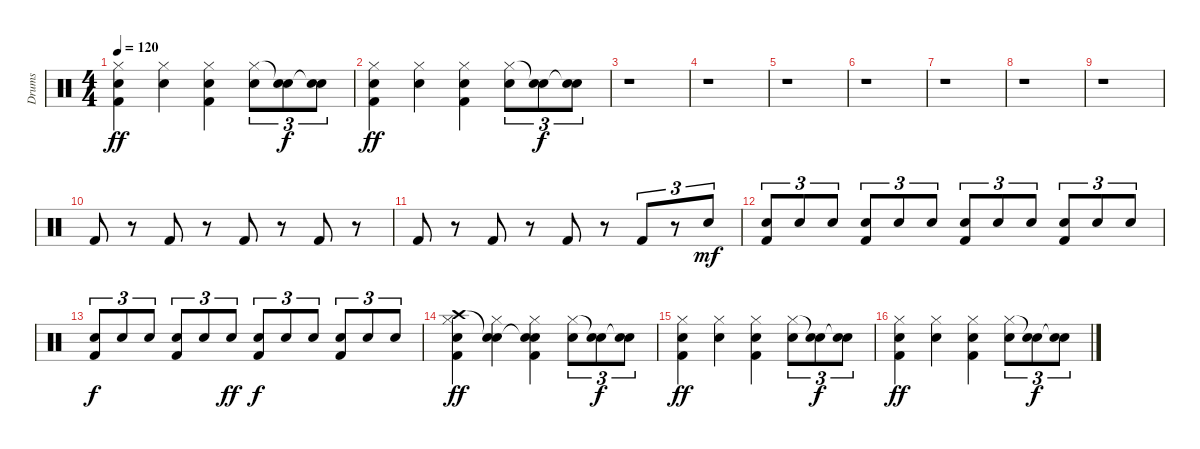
\track ("Drums" "Drums") {instrument percussion}
\staff {score}
\articulation defaults
\ts (4 4)
\tempo 120
\clef neutral
\ks c
("Hi-Hat (closed)" "Snare (hit) 2" "Kick (hit) 2").4{dy ff} ("Hi-Hat (closed)" "Snare (hit) 2").4 ("Hi-Hat (closed)" "Snare (hit) 2" "Kick (hit) 2").4 ("Hi-Hat (closed)" "Snare (hit) 2").8{tu (3 2)} ("Snare (hit)"{t} "Snare (hit) 2").8{tu (3 2) dy f} ("Snare (hit)"{t} "Snare (hit) 2").8{tu (3 2)} |
("Hi-Hat (closed)" "Snare (hit) 2" "Kick (hit) 2").4{dy ff} ("Hi-Hat (closed)" "Snare (hit) 2").4 ("Hi-Hat (closed)" "Snare (hit) 2" "Kick (hit) 2").4 ("Hi-Hat (closed)" "Snare (hit) 2").8{tu (3 2)} ("Snare (hit)"{t} "Snare (hit) 2").8{tu (3 2) dy f} ("Snare (hit)"{t} "Snare (hit) 2").8{tu (3 2)} |
r.1 |
r.1 |
r.1 |
r.1 |
r.1 |
r.1 |
r.1 |
"Kick (hit) 2".8 r.8 "Kick (hit) 2".8 r.8 "Kick (hit) 2".8 r.8 "Kick (hit) 2".8 r.8 |
"Kick (hit) 2".8 r.8 "Kick (hit) 2".8 r.8 "Kick (hit) 2".8 r.8 "Kick (hit) 2".8{tu (3 2)} r.8{tu (3 2)} "Snare (hit) 2".8{tu (3 2) dy mf} |
("Snare (hit) 2" "Kick (hit) 2").8{tu (3 2)} "Snare (hit) 2".8{tu (3 2)} "Snare (hit) 2".8{tu (3 2)} ("Snare (hit) 2" "Kick (hit) 2").8{tu (3 2)} "Snare (hit) 2".8{tu (3 2)} "Snare (hit) 2".8{tu (3 2)} ("Snare (hit) 2" "Kick (hit) 2").8{tu (3 2)} "Snare (hit) 2".8{tu (3 2)} "Snare (hit) 2".8{tu (3 2)} ("Snare (hit) 2" "Kick (hit) 2").8{tu (3 2)} "Snare (hit) 2".8{tu (3 2)} "Snare (hit) 2".8{tu (3 2)} |
("Snare (hit) 2" "Kick (hit) 2").8{tu (3 2) dy f} "Snare (hit) 2".8{tu (3 2)} "Snare (hit) 2".8{tu (3 2)} ("Snare (hit) 2" "Kick (hit) 2").8{tu (3 2)} "Snare (hit) 2".8{tu (3 2)} "Snare (hit) 2".8{tu (3 2) dy ff} ("Snare (hit) 2" "Kick (hit) 2").8{tu (3 2) dy f} "Snare (hit) 2".8{tu (3 2)} "Snare (hit) 2".8{tu (3 2)} ("Snare (hit) 2" "Kick (hit) 2").8{tu (3 2)} "Snare (hit) 2".8{tu (3 2)} "Snare (hit) 2".8{tu (3 2)} |
("Crash high (hit)" "Hi-Hat (closed)" "Snare (hit) 2" "Kick (hit) 2").4{dy ff} ("Snare (hit)"{t} "Hi-Hat (closed)" "Snare (hit) 2").4 ("Snare (hit)"{t} "Hi-Hat (closed)" "Snare (hit) 2" "Kick (hit) 2").4 ("Hi-Hat (closed)" "Snare (hit) 2").8{tu (3 2)} ("Snare (hit)"{t} "Snare (hit) 2").8{tu (3 2) dy f} ("Snare (hit)"{t} "Snare (hit) 2").8{tu (3 2)} |
("Hi-Hat (closed)" "Snare (hit) 2" "Kick (hit) 2").4{dy ff} ("Hi-Hat (closed)" "Snare (hit) 2").4 ("Hi-Hat (closed)" "Snare (hit) 2" "Kick (hit) 2").4 ("Hi-Hat (closed)" "Snare (hit) 2").8{tu (3 2)} ("Snare (hit)"{t} "Snare (hit) 2").8{tu (3 2) dy f} ("Snare (hit)"{t} "Snare (hit) 2").8{tu (3 2)} |
("Hi-Hat (closed)" "Snare (hit) 2" "Kick (hit) 2").4{dy ff} ("Hi-Hat (closed)" "Snare (hit) 2").4 ("Hi-Hat (closed)" "Snare (hit) 2" "Kick (hit) 2").4 ("Hi-Hat (closed)" "Snare (hit) 2").8{tu (3 2)} ("Snare (hit)"{t} "Snare (hit) 2").8{tu (3 2) dy f} ("Snare (hit)"{t} "Snare (hit) 2").8{tu (3 2)}
